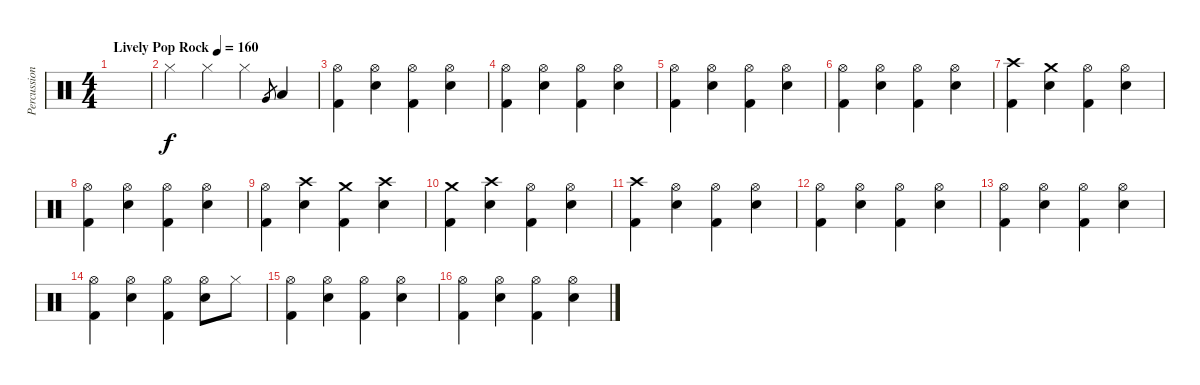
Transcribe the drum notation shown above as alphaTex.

\track ("Percussion" "Percussion") {instrument percussion}
\staff {score}
\articulation defaults
\ts (4 4)
\tempo (160 "Lively Pop Rock")
\clef neutral
\ks c
|
"Hi-Hat (closed)".4 "Hi-Hat (closed)".4 "Hi-Hat (closed)".4 "Very Low Tom (hit)".8{gr} "Low Tom (hit)".4 |
("Hi-Hat (open)" "Kick (hit) 2").4 ("Hi-Hat (open)" "Electric Snare (hit)").4 ("Hi-Hat (open)" "Kick (hit) 2").4 ("Hi-Hat (open)" "Electric Snare (hit)").4 |
("Hi-Hat (open)" "Kick (hit) 2").4 ("Hi-Hat (open)" "Electric Snare (hit)").4 ("Hi-Hat (open)" "Kick (hit) 2").4 ("Hi-Hat (open)" "Electric Snare (hit)").4 |
("Hi-Hat (open)" "Kick (hit) 2").4 ("Hi-Hat (open)" "Electric Snare (hit)").4 ("Hi-Hat (open)" "Kick (hit) 2").4 ("Hi-Hat (open)" "Electric Snare (hit)").4 |
("Hi-Hat (open)" "Kick (hit) 2").4 ("Hi-Hat (open)" "Electric Snare (hit)").4 ("Hi-Hat (open)" "Kick (hit) 2").4 ("Hi-Hat (open)" "Electric Snare (hit)").4 |
("Crash high (hit)" "Kick (hit) 2").4 ("Crash medium (hit)" "Electric Snare (hit)").4 ("Hi-Hat (open)" "Kick (hit) 2").4 ("Hi-Hat (open)" "Electric Snare (hit)").4 |
("Hi-Hat (open)" "Kick (hit) 2").4 ("Hi-Hat (open)" "Electric Snare (hit)").4 ("Hi-Hat (open)" "Kick (hit) 2").4 ("Hi-Hat (open)" "Electric Snare (hit)").4 |
("Hi-Hat (open)" "Kick (hit) 2").4 ("Crash high (hit)" "Electric Snare (hit)").4 ("Crash medium (hit)" "Kick (hit) 2").4 ("Crash high (hit)" "Electric Snare (hit)").4 |
("Crash medium (hit)" "Kick (hit) 2").4 ("Crash high (hit)" "Electric Snare (hit)").4 ("Hi-Hat (open)" "Kick (hit) 2").4 ("Hi-Hat (open)" "Electric Snare (hit)").4 |
("Crash high (hit)" "Kick (hit) 2").4 ("Hi-Hat (open)" "Electric Snare (hit)").4 ("Hi-Hat (open)" "Kick (hit) 2").4 ("Hi-Hat (open)" "Electric Snare (hit)").4 |
("Hi-Hat (open)" "Kick (hit) 2").4 ("Hi-Hat (open)" "Electric Snare (hit)").4 ("Hi-Hat (open)" "Kick (hit) 2").4 ("Hi-Hat (open)" "Electric Snare (hit)").4 |
("Hi-Hat (open)" "Kick (hit) 2").4 ("Hi-Hat (open)" "Electric Snare (hit)").4 ("Hi-Hat (open)" "Kick (hit) 2").4 ("Hi-Hat (open)" "Electric Snare (hit)").4 |
("Hi-Hat (open)" "Kick (hit) 2").4 ("Hi-Hat (open)" "Electric Snare (hit)").4 ("Hi-Hat (open)" "Kick (hit) 2").4 ("Hi-Hat (open)" "Electric Snare (hit)").8 "Hi-Hat (closed)".8 |
("Hi-Hat (open)" "Kick (hit) 2").4 ("Hi-Hat (open)" "Electric Snare (hit)").4 ("Hi-Hat (open)" "Kick (hit) 2").4 ("Hi-Hat (open)" "Electric Snare (hit)").4 |
("Hi-Hat (open)" "Kick (hit) 2").4 ("Hi-Hat (open)" "Electric Snare (hit)").4 ("Hi-Hat (open)" "Kick (hit) 2").4 ("Hi-Hat (open)" "Electric Snare (hit)").4
